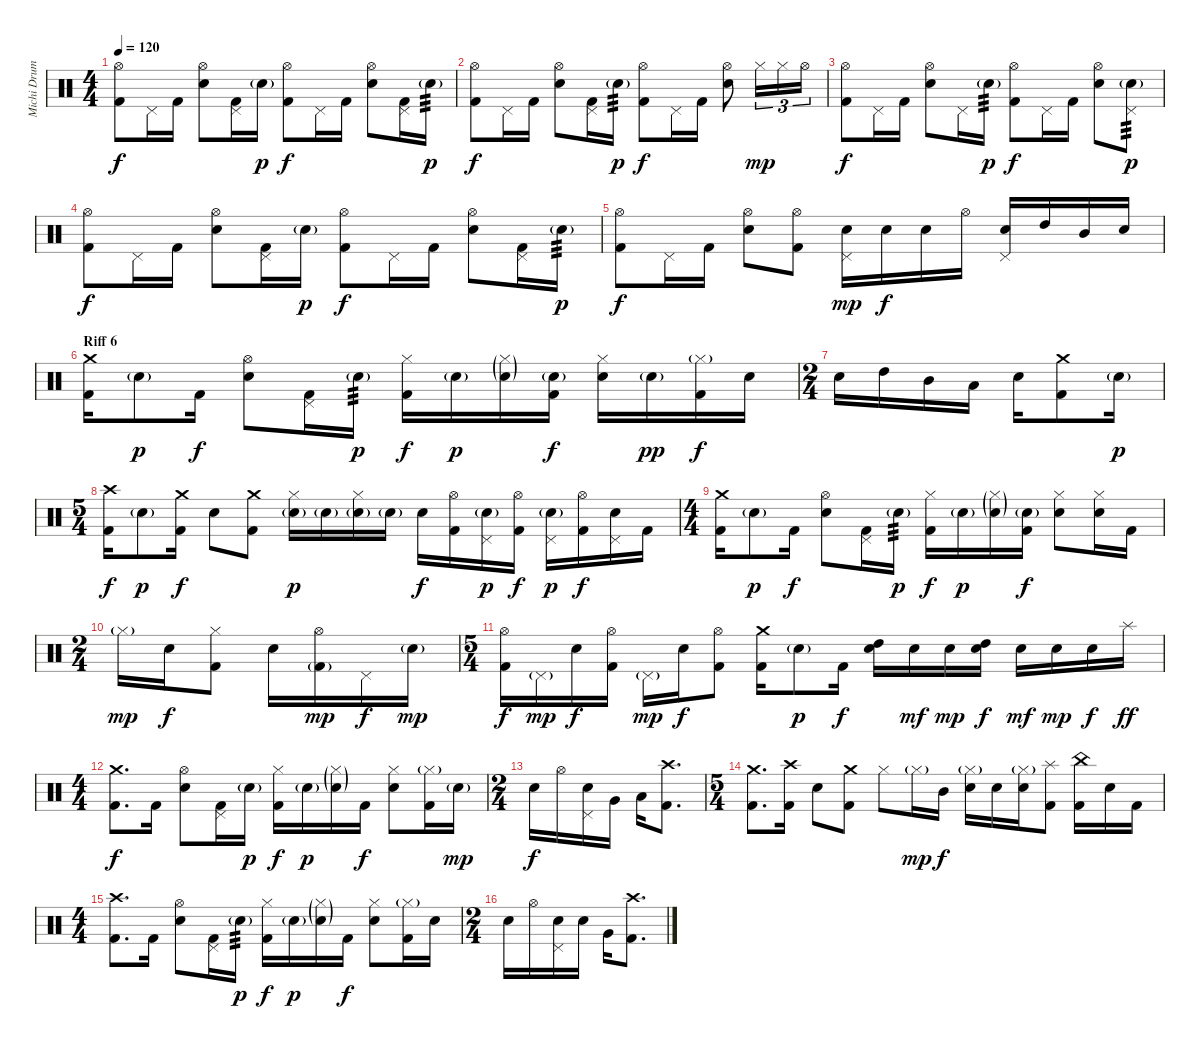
\track ("Michi Drums" "Michi Drum") {instrument percussion}
\staff {score}
\articulation defaults
\ts (4 4)
\tempo 120
\clef neutral
\ks c
("Hi-Hat (open)" "Kick (hit) 2").8{dy f} "Pedal Hi-Hat (hit)".16 "Kick (hit) 2".16 ("Hi-Hat (open)" "Electric Snare (hit)").8 ("Pedal Hi-Hat (hit)" "Kick (hit) 2").16 "Electric Snare (hit)"{g}.16{dy p} ("Hi-Hat (open)" "Kick (hit) 2").8{dy f} "Pedal Hi-Hat (hit)".16 "Kick (hit) 2".16 ("Hi-Hat (open)" "Electric Snare (hit)").8 ("Pedal Hi-Hat (hit)" "Kick (hit) 2").16 "Electric Snare (hit)"{g}.16{tp 3 dy p} |
("Hi-Hat (open)" "Kick (hit) 2").8{dy f} "Pedal Hi-Hat (hit)".16 "Kick (hit) 2".16 ("Hi-Hat (open)" "Electric Snare (hit)").8 ("Pedal Hi-Hat (hit)" "Kick (hit) 2").16 "Electric Snare (hit)"{g}.16{tp 3 dy p} ("Hi-Hat (open)" "Kick (hit) 2").8{dy f} "Pedal Hi-Hat (hit)".16 "Kick (hit) 2".16 ("Hi-Hat (open)" "Electric Snare (hit)").8 "Hi-Hat (closed)".16{tu (3 2) dy mp} "Hi-Hat (closed)".16{tu (3 2)} "Hi-Hat (open)".16{tu (3 2)} |
("Hi-Hat (open)" "Kick (hit) 2").8{dy f} "Pedal Hi-Hat (hit)".16 "Kick (hit) 2".16 ("Hi-Hat (open)" "Electric Snare (hit)").8 "Pedal Hi-Hat (hit)".16 "Electric Snare (hit)"{g}.16{tp 3 dy p} ("Hi-Hat (open)" "Kick (hit) 2").8{dy f} "Pedal Hi-Hat (hit)".16 "Kick (hit) 2".16 ("Hi-Hat (open)" "Electric Snare (hit)").8 ("Pedal Hi-Hat (hit)" "Electric Snare (hit)"{g}).8{tp 3 dy p} |
("Hi-Hat (open)" "Kick (hit) 2").8{dy f} "Pedal Hi-Hat (hit)".16 "Kick (hit) 2".16 ("Hi-Hat (open)" "Electric Snare (hit)").8 ("Pedal Hi-Hat (hit)" "Kick (hit) 2").16 "Electric Snare (hit)"{g}.16{dy p} ("Hi-Hat (open)" "Kick (hit) 2").8{dy f} "Pedal Hi-Hat (hit)".16 "Kick (hit) 2".16 ("Hi-Hat (open)" "Electric Snare (hit)").8 ("Pedal Hi-Hat (hit)" "Kick (hit) 2").16 "Electric Snare (hit)"{g}.16{tp 3 dy p} |
("Hi-Hat (open)" "Kick (hit) 2").8{dy f} "Pedal Hi-Hat (hit)".16 "Kick (hit) 2".16 ("Hi-Hat (open)" "Electric Snare (hit)").8 ("Hi-Hat (open)" "Kick (hit) 2").8 ("Pedal Hi-Hat (hit)" "Electric Snare (hit)").16{dy mp} "Electric Snare (hit)".16{dy f} "Electric Snare (hit)".16 "Hi-Hat (open)".16 ("Pedal Hi-Hat (hit)" "Electric Snare (hit)").16 "High Tom (hit)".16 "Mid Tom (hit)".16 "Electric Snare (hit)".16 |
\section ("" "Riff 6")
("Crash medium (hit)" "Kick (hit) 2").16 "Electric Snare (hit)"{g}.8{dy p} "Kick (hit) 2".16{dy f} ("Hi-Hat (open)" "Electric Snare (hit)").8 ("Pedal Hi-Hat (hit)" "Kick (hit) 2").16 "Electric Snare (hit)"{g}.16{tp 3 dy p} ("Hi-Hat (closed)" "Kick (hit) 2").16{dy f} "Electric Snare (hit)"{g}.16{dy p} ("Hi-Hat (closed)"{g} "Electric Snare (hit)"{g}).16 ("Electric Snare (hit)"{g} "Kick (hit) 2").16{dy f} ("Hi-Hat (closed)" "Electric Snare (hit)").16 "Electric Snare (hit)"{g}.16{dy pp} ("Hi-Hat (closed)"{g} "Kick (hit) 2").16{dy f} "Electric Snare (hit)".16 |
\ts (2 4)
"Electric Snare (hit)".16 "High Tom (hit)".16 "Mid Tom (hit)".16 "Low Tom (hit)".16 "Electric Snare (hit)".16 ("Crash medium (hit)" "Kick (hit) 2").8 "Electric Snare (hit)"{g}.16{dy p} |
\ts (5 4)
("Crash high (hit)" "Kick (hit) 2").16{dy f} "Electric Snare (hit)"{g}.8{dy p} ("Crash medium (hit)" "Kick (hit) 2").16{dy f} "Electric Snare (hit)".8 ("Crash medium (hit)" "Kick (hit) 2").8 ("Hi-Hat (closed)" "Electric Snare (hit)"{g}).16{dy p} "Electric Snare (hit)"{g}.16 ("Hi-Hat (closed)" "Electric Snare (hit)"{g}).16 "Electric Snare (hit)"{g}.16 "Electric Snare (hit)".16{dy f} ("Hi-Hat (open)" "Kick (hit) 2").16 ("Pedal Hi-Hat (hit)" "Electric Snare (hit)"{g}).16{dy p} ("Hi-Hat (open)" "Kick (hit) 2").16{dy f} ("Pedal Hi-Hat (hit)" "Electric Snare (hit)"{g}).16{dy p} ("Hi-Hat (open)" "Kick (hit) 2").16{dy f} ("Pedal Hi-Hat (hit)" "Electric Snare (hit)").16 "Kick (hit) 2".16 |
\ts (4 4)
("Crash medium (hit)" "Kick (hit) 2").16 "Electric Snare (hit)"{g}.8{dy p} "Kick (hit) 2".16{dy f} ("Hi-Hat (open)" "Electric Snare (hit)").8 ("Pedal Hi-Hat (hit)" "Kick (hit) 2").16 "Electric Snare (hit)"{g}.16{tp 3 dy p} ("Hi-Hat (closed)" "Kick (hit) 2").16{dy f} "Electric Snare (hit)"{g}.16{dy p} ("Hi-Hat (closed)"{g} "Electric Snare (hit)"{g}).16 ("Electric Snare (hit)"{g} "Kick (hit) 2").16{dy f} ("Hi-Hat (closed)" "Electric Snare (hit)").8 ("Hi-Hat (closed)" "Electric Snare (hit)").16 "Kick (hit) 2".16 |
\ts (2 4)
"Hi-Hat (closed)"{g}.16{dy mp} "Electric Snare (hit)".16{dy f} ("Hi-Hat (closed)" "Kick (hit) 2").8 "Electric Snare (hit)".16 ("Hi-Hat (open)" "Kick (hit) 2"{g}).16{dy mp} "Pedal Hi-Hat (hit)".16{dy f} "Electric Snare (hit)"{g}.16{dy mp} |
\ts (5 4)
("Hi-Hat (open)" "Kick (hit) 2").16{dy f} "Pedal Hi-Hat (hit)"{g}.16{dy mp} "Electric Snare (hit)".16{dy f} ("Hi-Hat (open)" "Kick (hit) 2").16 "Pedal Hi-Hat (hit)"{g}.16{dy mp} "Electric Snare (hit)".16{dy f} ("Hi-Hat (open)" "Kick (hit) 2").8 ("Crash medium (hit)" "Kick (hit) 2").16 "Electric Snare (hit)"{g}.8{dy p} "Kick (hit) 2".16{dy f} ("High Tom (hit)" "Electric Snare (hit)").16{bu 480} "Electric Snare (hit)".16{dy mf} "Electric Snare (hit)".16{dy mp} ("High Tom (hit)" "Electric Snare (hit)").16{bu 480 dy f} "Electric Snare (hit)".16{dy mf} "Electric Snare (hit)".16{dy mp} "Electric Snare (hit)".16{dy f} "Splash (hit)".16{dy ff} |
\ts (4 4)
("Crash medium (hit)" "Kick (hit) 2").8{d dy f} "Kick (hit) 2".16 ("Hi-Hat (open)" "Electric Snare (hit)").8 ("Pedal Hi-Hat (hit)" "Kick (hit) 2").16 "Electric Snare (hit)"{g}.16{dy p} ("Hi-Hat (closed)" "Kick (hit) 2").16{dy f} "Electric Snare (hit)"{g}.16{dy p} ("Hi-Hat (closed)"{g} "Electric Snare (hit)"{g}).16 "Kick (hit) 2".16{dy f} ("Hi-Hat (closed)" "Electric Snare (hit)").8 ("Hi-Hat (closed)"{g} "Kick (hit) 2").16 "Electric Snare (hit)"{g}.16{dy mp} |
\ts (2 4)
"Electric Snare (hit)".16{dy f} "Hi-Hat (open)".16 ("Pedal Hi-Hat (hit)" "Electric Snare (hit)").16 "Very Low Tom (hit)".16 "Low Floor Tom (hit)".16 ("Crash high (hit)" "Kick (hit) 2").8{d} |
\ts (5 4)
("Crash medium (hit)" "Kick (hit) 2").8{d} ("Crash high (hit)" "Kick (hit) 2").16 "Electric Snare (hit)".8 ("Crash medium (hit)" "Kick (hit) 2").8 "Hi-Hat (closed)".8 "Hi-Hat (closed)"{g}.16{dy mp} "Mid Tom (hit)".16{dy f} ("Hi-Hat (closed)"{g} "Electric Snare (hit)").16 "Electric Snare (hit)".16 ("Hi-Hat (closed)"{g} "Electric Snare (hit)").16 ("Splash (hit)" "Kick (hit) 2").8 ("China (hit)" "Kick (hit) 2").16 "Electric Snare (hit)".16 "Kick (hit) 2".16 |
\ts (4 4)
("Crash high (hit)" "Kick (hit) 2").8{d} "Kick (hit) 2".16 ("Hi-Hat (open)" "Electric Snare (hit)").8 ("Pedal Hi-Hat (hit)" "Kick (hit) 2").16 "Electric Snare (hit)"{g}.16{tp 3 dy p} ("Hi-Hat (closed)" "Kick (hit) 2").16{dy f} "Electric Snare (hit)"{g}.16{dy p} ("Hi-Hat (closed)"{g} "Electric Snare (hit)"{g}).16 "Kick (hit) 2".16{dy f} ("Hi-Hat (closed)" "Electric Snare (hit)").8 ("Hi-Hat (closed)"{g} "Kick (hit) 2").16 "Electric Snare (hit)".16 |
\ts (2 4)
"Electric Snare (hit)".16 "Hi-Hat (open)".16 ("Pedal Hi-Hat (hit)" "Electric Snare (hit)").16 "Electric Snare (hit)".16 "Very Low Tom (hit)".16 ("Crash high (hit)" "Kick (hit) 2").8{d}
